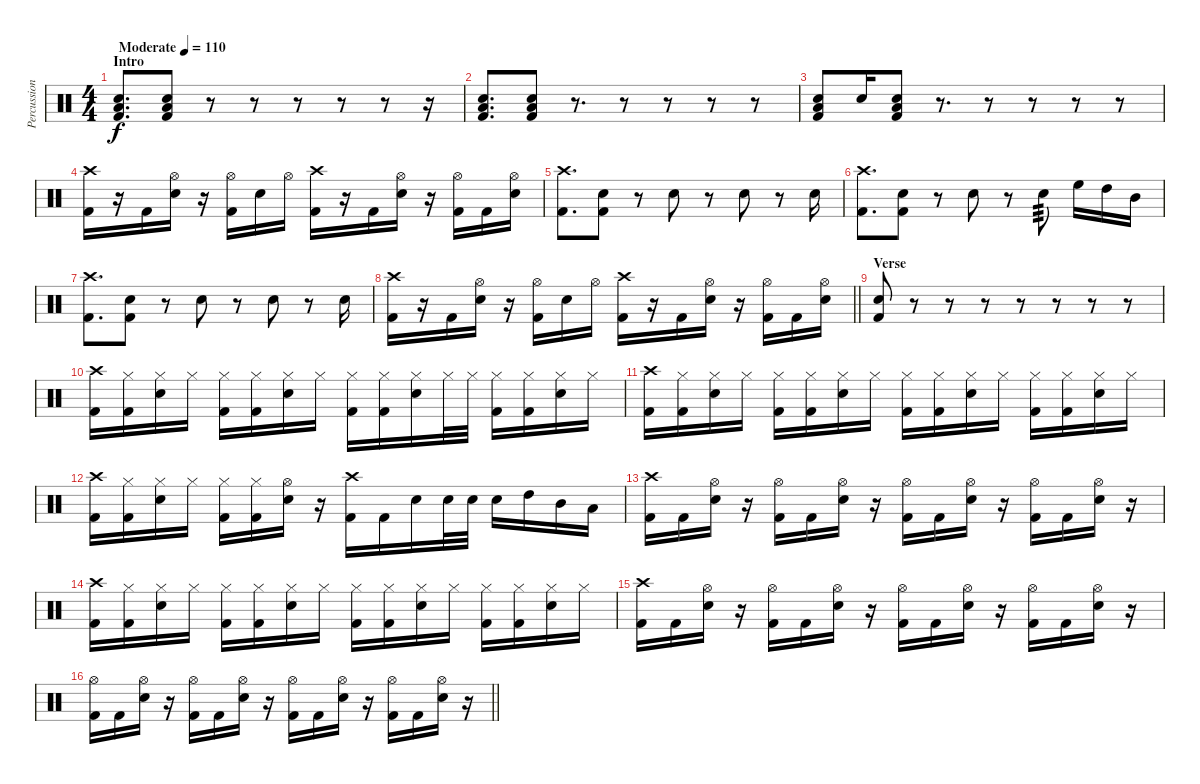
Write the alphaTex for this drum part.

\track ("Percussion" "Percussion") {instrument percussion}
\staff {score}
\articulation defaults
\ts (4 4)
\section ("" "Intro")
\tempo (110 "Moderate")
\clef neutral
\ks c
("Low Floor Tom (hit)" "Electric Snare (hit)" "Kick (hit) 2").8{d dy f} ("Low Floor Tom (hit)" "Electric Snare (hit)" "Kick (hit) 2").8 r.8 r.8 r.8 r.8 r.8 r.16 |
("Low Floor Tom (hit)" "Electric Snare (hit)" "Kick (hit) 2").8{d} ("Low Floor Tom (hit)" "Electric Snare (hit)" "Kick (hit) 2").8 r.8{d} r.8 r.8 r.8 r.8 |
("Low Floor Tom (hit)" "Electric Snare (hit)" "Kick (hit) 2").8 "Electric Snare (hit)".16 ("Low Floor Tom (hit)" "Electric Snare (hit)" "Kick (hit) 2").8 r.8{d} r.8 r.8 r.8 r.8 |
("Crash high (hit)" "Kick (hit) 2").16 r.16 "Kick (hit) 2".16 ("Hi-Hat (open)" "Electric Snare (hit)").16 r.16 ("Hi-Hat (open)" "Kick (hit) 2").16 "Electric Snare (hit)".16 "Hi-Hat (open)".16 ("Crash high (hit)" "Kick (hit) 2").16 r.16 "Kick (hit) 2".16 ("Hi-Hat (open)" "Electric Snare (hit)").16 r.16 ("Hi-Hat (open)" "Kick (hit) 2").16 "Kick (hit) 2".16 ("Hi-Hat (open)" "Electric Snare (hit)").16 |
("Crash high (hit)" "Kick (hit) 2").8{d} ("Electric Snare (hit)" "Kick (hit) 2").8 r.8 "Electric Snare (hit)".8 r.8 "Electric Snare (hit)".8 r.8 "Electric Snare (hit)".16 |
("Crash high (hit)" "Kick (hit) 2").8{d} ("Electric Snare (hit)" "Kick (hit) 2").8 r.8 "Electric Snare (hit)".8 r.8 "Electric Snare (hit)".8{tp 3} "High Floor Tom (hit)".16 "High Tom (hit)".16 "Mid Tom (hit)".16 |
("Crash high (hit)" "Kick (hit) 2").8{d} ("Electric Snare (hit)" "Kick (hit) 2").8 r.8 "Electric Snare (hit)".8 r.8 "Electric Snare (hit)".8 r.8 "Electric Snare (hit)".16 |
\barLineRight lightlight
("Crash high (hit)" "Kick (hit) 2").16 r.16 "Kick (hit) 2".16 ("Hi-Hat (open)" "Electric Snare (hit)").16 r.16 ("Hi-Hat (open)" "Kick (hit) 2").16 "Electric Snare (hit)".16 "Hi-Hat (open)".16 ("Crash high (hit)" "Kick (hit) 2").16 r.16 "Kick (hit) 2".16 ("Hi-Hat (open)" "Electric Snare (hit)").16 r.16 ("Hi-Hat (open)" "Kick (hit) 2").16 "Kick (hit) 2".16 ("Hi-Hat (open)" "Electric Snare (hit)").16 |
\section ("" "Verse")
("Electric Snare (hit)" "Kick (hit) 2").8 r.8 r.8 r.8 r.8 r.8 r.8 r.8 |
("Crash high (hit)" "Kick (hit) 2").16 ("Hi-Hat (closed)" "Kick (hit) 2").16 ("Hi-Hat (closed)" "Electric Snare (hit)").16 "Hi-Hat (closed)".16 ("Hi-Hat (closed)" "Kick (hit) 2").16 ("Hi-Hat (closed)" "Kick (hit) 2").16 ("Hi-Hat (closed)" "Electric Snare (hit)").16 "Hi-Hat (closed)".16 ("Hi-Hat (closed)" "Kick (hit) 2").16 ("Hi-Hat (closed)" "Kick (hit) 2").16 ("Hi-Hat (closed)" "Electric Snare (hit)").16 "Hi-Hat (closed)".32 "Hi-Hat (closed)".32 ("Hi-Hat (closed)" "Kick (hit) 2").16 ("Hi-Hat (closed)" "Kick (hit) 2").16 ("Hi-Hat (closed)" "Electric Snare (hit)").16 "Hi-Hat (closed)".16 |
("Crash high (hit)" "Kick (hit) 2").16 ("Hi-Hat (closed)" "Kick (hit) 2").16 ("Hi-Hat (closed)" "Electric Snare (hit)").16 "Hi-Hat (closed)".16 ("Hi-Hat (closed)" "Kick (hit) 2").16 ("Hi-Hat (closed)" "Kick (hit) 2").16 ("Hi-Hat (closed)" "Electric Snare (hit)").16 "Hi-Hat (closed)".16 ("Hi-Hat (closed)" "Kick (hit) 2").16 ("Hi-Hat (closed)" "Kick (hit) 2").16 ("Hi-Hat (closed)" "Electric Snare (hit)").16 "Hi-Hat (closed)".16 ("Hi-Hat (closed)" "Kick (hit) 2").16 ("Hi-Hat (closed)" "Kick (hit) 2").16 ("Hi-Hat (closed)" "Electric Snare (hit)").16 "Hi-Hat (closed)".16 |
("Crash high (hit)" "Kick (hit) 2").16 ("Hi-Hat (closed)" "Kick (hit) 2").16 ("Hi-Hat (closed)" "Electric Snare (hit)").16 "Hi-Hat (closed)".16 ("Hi-Hat (closed)" "Kick (hit) 2").16 ("Hi-Hat (closed)" "Kick (hit) 2").16 ("Hi-Hat (open)" "Electric Snare (hit)").16 r.16 ("Crash high (hit)" "Kick (hit) 2").16 "Kick (hit) 2".16 "Electric Snare (hit)".16 "Electric Snare (hit)".32 "Electric Snare (hit)".32 "Electric Snare (hit)".16 "High Tom (hit)".16 "Mid Tom (hit)".16 "Low Tom (hit)".16 |
("Crash high (hit)" "Kick (hit) 2").16 "Kick (hit) 2".16 ("Hi-Hat (open)" "Electric Snare (hit)").16 r.16 ("Hi-Hat (open)" "Kick (hit) 2").16 "Kick (hit) 2".16 ("Hi-Hat (open)" "Electric Snare (hit)").16 r.16 ("Hi-Hat (open)" "Kick (hit) 2").16 "Kick (hit) 2".16 ("Hi-Hat (open)" "Electric Snare (hit)").16 r.16 ("Hi-Hat (open)" "Kick (hit) 2").16 "Kick (hit) 2".16 ("Hi-Hat (open)" "Electric Snare (hit)").16 r.16 |
("Crash high (hit)" "Kick (hit) 2").16 ("Hi-Hat (closed)" "Kick (hit) 2").16 ("Hi-Hat (closed)" "Electric Snare (hit)").16 "Hi-Hat (closed)".16 ("Hi-Hat (closed)" "Kick (hit) 2").16 ("Hi-Hat (closed)" "Kick (hit) 2").16 ("Hi-Hat (closed)" "Electric Snare (hit)").16 "Hi-Hat (closed)".16 ("Hi-Hat (closed)" "Kick (hit) 2").16 ("Hi-Hat (closed)" "Kick (hit) 2").16 ("Hi-Hat (closed)" "Electric Snare (hit)").16 "Hi-Hat (closed)".16 ("Hi-Hat (closed)" "Kick (hit) 2").16 ("Hi-Hat (closed)" "Kick (hit) 2").16 ("Hi-Hat (closed)" "Electric Snare (hit)").16 "Hi-Hat (closed)".16 |
("Crash high (hit)" "Kick (hit) 2").16 "Kick (hit) 2".16 ("Hi-Hat (open)" "Electric Snare (hit)").16 r.16 ("Hi-Hat (open)" "Kick (hit) 2").16 "Kick (hit) 2".16 ("Hi-Hat (open)" "Electric Snare (hit)").16 r.16 ("Hi-Hat (open)" "Kick (hit) 2").16 "Kick (hit) 2".16 ("Hi-Hat (open)" "Electric Snare (hit)").16 r.16 ("Hi-Hat (open)" "Kick (hit) 2").16 "Kick (hit) 2".16 ("Hi-Hat (open)" "Electric Snare (hit)").16 r.16 |
\barLineRight lightlight
("Hi-Hat (open)" "Kick (hit) 2").16 "Kick (hit) 2".16 ("Hi-Hat (open)" "Electric Snare (hit)").16 r.16 ("Hi-Hat (open)" "Kick (hit) 2").16 "Kick (hit) 2".16 ("Hi-Hat (open)" "Electric Snare (hit)").16 r.16 ("Hi-Hat (open)" "Kick (hit) 2").16 "Kick (hit) 2".16 ("Hi-Hat (open)" "Electric Snare (hit)").16 r.16 ("Hi-Hat (open)" "Kick (hit) 2").16 "Kick (hit) 2".16 ("Hi-Hat (open)" "Electric Snare (hit)").16 r.16
